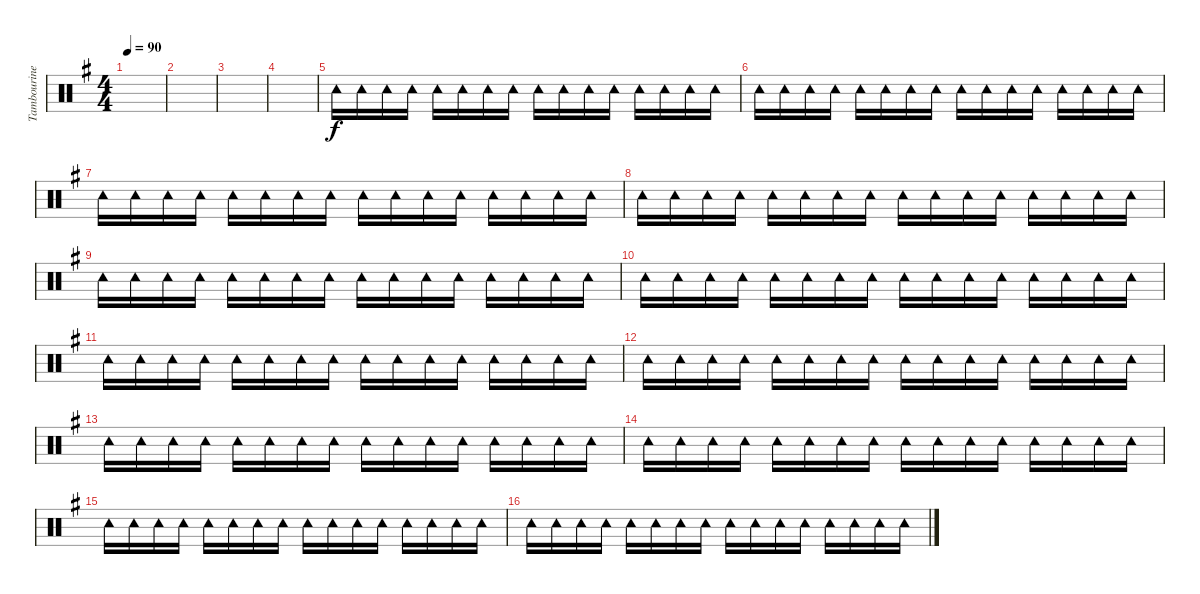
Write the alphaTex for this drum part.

\track ("Tambourine" "Tambourine") {instrument percussion}
\staff {score}
\articulation defaults
\ts (4 4)
\tempo 90
\clef neutral
\ks g
|
|
|
|
"Tambourine (hit)".16{volume 5 balance 6} "Tambourine (hit)".16 "Tambourine (hit)".16 "Tambourine (hit)".16 "Tambourine (hit)".16 "Tambourine (hit)".16 "Tambourine (hit)".16 "Tambourine (hit)".16 "Tambourine (hit)".16 "Tambourine (hit)".16 "Tambourine (hit)".16 "Tambourine (hit)".16 "Tambourine (hit)".16 "Tambourine (hit)".16 "Tambourine (hit)".16 "Tambourine (hit)".16 |
"Tambourine (hit)".16 "Tambourine (hit)".16 "Tambourine (hit)".16 "Tambourine (hit)".16 "Tambourine (hit)".16 "Tambourine (hit)".16 "Tambourine (hit)".16 "Tambourine (hit)".16 "Tambourine (hit)".16 "Tambourine (hit)".16 "Tambourine (hit)".16 "Tambourine (hit)".16 "Tambourine (hit)".16 "Tambourine (hit)".16 "Tambourine (hit)".16 "Tambourine (hit)".16 |
"Tambourine (hit)".16 "Tambourine (hit)".16 "Tambourine (hit)".16 "Tambourine (hit)".16 "Tambourine (hit)".16 "Tambourine (hit)".16 "Tambourine (hit)".16 "Tambourine (hit)".16 "Tambourine (hit)".16 "Tambourine (hit)".16 "Tambourine (hit)".16 "Tambourine (hit)".16 "Tambourine (hit)".16 "Tambourine (hit)".16 "Tambourine (hit)".16 "Tambourine (hit)".16 |
"Tambourine (hit)".16 "Tambourine (hit)".16 "Tambourine (hit)".16 "Tambourine (hit)".16 "Tambourine (hit)".16 "Tambourine (hit)".16 "Tambourine (hit)".16 "Tambourine (hit)".16 "Tambourine (hit)".16 "Tambourine (hit)".16 "Tambourine (hit)".16 "Tambourine (hit)".16 "Tambourine (hit)".16 "Tambourine (hit)".16 "Tambourine (hit)".16 "Tambourine (hit)".16 |
"Tambourine (hit)".16 "Tambourine (hit)".16 "Tambourine (hit)".16 "Tambourine (hit)".16 "Tambourine (hit)".16 "Tambourine (hit)".16 "Tambourine (hit)".16 "Tambourine (hit)".16 "Tambourine (hit)".16 "Tambourine (hit)".16 "Tambourine (hit)".16 "Tambourine (hit)".16 "Tambourine (hit)".16 "Tambourine (hit)".16 "Tambourine (hit)".16 "Tambourine (hit)".16 |
"Tambourine (hit)".16 "Tambourine (hit)".16 "Tambourine (hit)".16 "Tambourine (hit)".16 "Tambourine (hit)".16 "Tambourine (hit)".16 "Tambourine (hit)".16 "Tambourine (hit)".16 "Tambourine (hit)".16 "Tambourine (hit)".16 "Tambourine (hit)".16 "Tambourine (hit)".16 "Tambourine (hit)".16 "Tambourine (hit)".16 "Tambourine (hit)".16 "Tambourine (hit)".16 |
"Tambourine (hit)".16 "Tambourine (hit)".16 "Tambourine (hit)".16 "Tambourine (hit)".16 "Tambourine (hit)".16 "Tambourine (hit)".16 "Tambourine (hit)".16 "Tambourine (hit)".16 "Tambourine (hit)".16 "Tambourine (hit)".16 "Tambourine (hit)".16 "Tambourine (hit)".16 "Tambourine (hit)".16 "Tambourine (hit)".16 "Tambourine (hit)".16 "Tambourine (hit)".16 |
"Tambourine (hit)".16 "Tambourine (hit)".16 "Tambourine (hit)".16 "Tambourine (hit)".16 "Tambourine (hit)".16 "Tambourine (hit)".16 "Tambourine (hit)".16 "Tambourine (hit)".16 "Tambourine (hit)".16 "Tambourine (hit)".16 "Tambourine (hit)".16 "Tambourine (hit)".16 "Tambourine (hit)".16 "Tambourine (hit)".16 "Tambourine (hit)".16 "Tambourine (hit)".16 |
"Tambourine (hit)".16 "Tambourine (hit)".16 "Tambourine (hit)".16 "Tambourine (hit)".16 "Tambourine (hit)".16 "Tambourine (hit)".16 "Tambourine (hit)".16 "Tambourine (hit)".16 "Tambourine (hit)".16 "Tambourine (hit)".16 "Tambourine (hit)".16 "Tambourine (hit)".16 "Tambourine (hit)".16 "Tambourine (hit)".16 "Tambourine (hit)".16 "Tambourine (hit)".16 |
"Tambourine (hit)".16 "Tambourine (hit)".16 "Tambourine (hit)".16 "Tambourine (hit)".16 "Tambourine (hit)".16 "Tambourine (hit)".16 "Tambourine (hit)".16 "Tambourine (hit)".16 "Tambourine (hit)".16 "Tambourine (hit)".16 "Tambourine (hit)".16 "Tambourine (hit)".16 "Tambourine (hit)".16 "Tambourine (hit)".16 "Tambourine (hit)".16 "Tambourine (hit)".16 |
"Tambourine (hit)".16 "Tambourine (hit)".16 "Tambourine (hit)".16 "Tambourine (hit)".16 "Tambourine (hit)".16 "Tambourine (hit)".16 "Tambourine (hit)".16 "Tambourine (hit)".16 "Tambourine (hit)".16 "Tambourine (hit)".16 "Tambourine (hit)".16 "Tambourine (hit)".16 "Tambourine (hit)".16 "Tambourine (hit)".16 "Tambourine (hit)".16 "Tambourine (hit)".16 |
"Tambourine (hit)".16 "Tambourine (hit)".16 "Tambourine (hit)".16 "Tambourine (hit)".16 "Tambourine (hit)".16 "Tambourine (hit)".16 "Tambourine (hit)".16 "Tambourine (hit)".16 "Tambourine (hit)".16 "Tambourine (hit)".16 "Tambourine (hit)".16 "Tambourine (hit)".16 "Tambourine (hit)".16 "Tambourine (hit)".16 "Tambourine (hit)".16 "Tambourine (hit)".16
